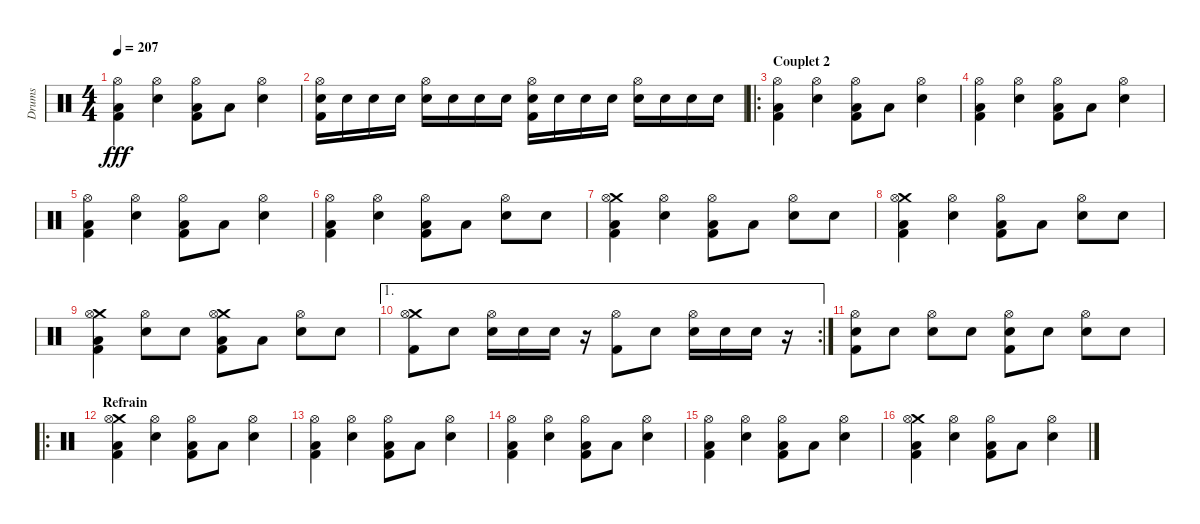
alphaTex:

\track ("Drums" "Drums") {instrument percussion}
\staff {score}
\articulation defaults
\ts (4 4)
\tempo 207
\clef neutral
\ks c
("Hi-Hat (open)" "Low Floor Tom (hit)" "Kick (hit) 2").4{dy fff} ("Hi-Hat (open)" "Snare (hit) 2").4 ("Hi-Hat (open)" "Low Floor Tom (hit)" "Kick (hit) 2").8 "Low Floor Tom (hit)".8 ("Hi-Hat (open)" "Snare (hit) 2").4 |
("Hi-Hat (open)" "Snare (hit) 2" "Kick (hit) 2").16 "Snare (hit) 2".16 "Snare (hit) 2".16 "Snare (hit) 2".16 ("Hi-Hat (open)" "Snare (hit) 2").16 "Snare (hit) 2".16 "Snare (hit) 2".16 "Snare (hit) 2".16 ("Hi-Hat (open)" "Snare (hit) 2" "Kick (hit) 2").16 "Snare (hit) 2".16 "Snare (hit) 2".16 "Snare (hit) 2".16 ("Hi-Hat (open)" "Snare (hit) 2").16 "Snare (hit) 2".16 "Snare (hit) 2".16 "Snare (hit) 2".16 |
\ro
\section ("" "Couplet 2")
("Hi-Hat (open)" "Low Floor Tom (hit)" "Kick (hit) 2").4 ("Hi-Hat (open)" "Snare (hit) 2").4 ("Hi-Hat (open)" "Low Floor Tom (hit)" "Kick (hit) 2").8 "Low Floor Tom (hit)".8 ("Hi-Hat (open)" "Snare (hit) 2").4 |
("Hi-Hat (open)" "Low Floor Tom (hit)" "Kick (hit) 2").4 ("Hi-Hat (open)" "Snare (hit) 2").4 ("Hi-Hat (open)" "Low Floor Tom (hit)" "Kick (hit) 2").8 "Low Floor Tom (hit)".8 ("Hi-Hat (open)" "Snare (hit) 2").4 |
("Hi-Hat (open)" "Low Floor Tom (hit)" "Kick (hit) 2").4 ("Hi-Hat (open)" "Snare (hit) 2").4 ("Hi-Hat (open)" "Low Floor Tom (hit)" "Kick (hit) 2").8 "Low Floor Tom (hit)".8 ("Hi-Hat (open)" "Snare (hit) 2").4 |
("Hi-Hat (open)" "Low Floor Tom (hit)" "Kick (hit) 2").4 ("Hi-Hat (open)" "Snare (hit) 2").4 ("Hi-Hat (open)" "Low Floor Tom (hit)" "Kick (hit) 2").8 "Low Floor Tom (hit)".8 ("Hi-Hat (open)" "Snare (hit) 2").8 "Snare (hit) 2".8 |
("Crash medium (hit)" "Hi-Hat (open)" "Low Floor Tom (hit)" "Kick (hit) 2").4 ("Hi-Hat (open)" "Snare (hit) 2").4 ("Hi-Hat (open)" "Low Floor Tom (hit)" "Kick (hit) 2").8 "Low Floor Tom (hit)".8 ("Hi-Hat (open)" "Snare (hit) 2").8 "Snare (hit) 2".8 |
("Crash medium (hit)" "Hi-Hat (open)" "Low Floor Tom (hit)" "Kick (hit) 2").4 ("Hi-Hat (open)" "Snare (hit) 2").4 ("Hi-Hat (open)" "Low Floor Tom (hit)" "Kick (hit) 2").8 "Low Floor Tom (hit)".8 ("Hi-Hat (open)" "Snare (hit) 2").8 "Snare (hit) 2".8 |
("Crash medium (hit)" "Hi-Hat (open)" "Low Floor Tom (hit)" "Kick (hit) 2").4 ("Hi-Hat (open)" "Snare (hit) 2").8 "Snare (hit) 2".8 ("Crash medium (hit)" "Hi-Hat (open)" "Low Floor Tom (hit)" "Kick (hit) 2").8 "Low Floor Tom (hit)".8 ("Hi-Hat (open)" "Snare (hit) 2").8 "Snare (hit) 2".8 |
\ae 1
\rc 2
("Crash medium (hit)" "Hi-Hat (open)" "Kick (hit) 2").8 "Snare (hit) 2".8 ("Hi-Hat (open)" "Snare (hit) 2").16 "Snare (hit) 2".16 "Snare (hit) 2".16 r.16 ("Hi-Hat (open)" "Kick (hit) 2").8 "Snare (hit) 2".8 ("Hi-Hat (open)" "Snare (hit) 2").16 "Snare (hit) 2".16 "Snare (hit) 2".16 r.16 |
("Hi-Hat (open)" "Snare (hit) 2" "Kick (hit) 2").8 "Snare (hit) 2".8 ("Hi-Hat (open)" "Snare (hit) 2").8 "Snare (hit) 2".8 ("Hi-Hat (open)" "Snare (hit) 2" "Kick (hit) 2").8 "Snare (hit) 2".8 ("Hi-Hat (open)" "Snare (hit) 2").8 "Snare (hit) 2".8 |
\ro
\section ("" "Refrain")
("Crash medium (hit)" "Hi-Hat (open)" "Low Floor Tom (hit)" "Kick (hit) 2").4 ("Hi-Hat (open)" "Snare (hit) 2").4 ("Hi-Hat (open)" "Low Floor Tom (hit)" "Kick (hit) 2").8 "Low Floor Tom (hit)".8 ("Hi-Hat (open)" "Snare (hit) 2").4 |
("Hi-Hat (open)" "Low Floor Tom (hit)" "Kick (hit) 2").4 ("Hi-Hat (open)" "Snare (hit) 2").4 ("Hi-Hat (open)" "Low Floor Tom (hit)" "Kick (hit) 2").8 "Low Floor Tom (hit)".8 ("Hi-Hat (open)" "Snare (hit) 2").4 |
("Hi-Hat (open)" "Low Floor Tom (hit)" "Kick (hit) 2").4 ("Hi-Hat (open)" "Snare (hit) 2").4 ("Hi-Hat (open)" "Low Floor Tom (hit)" "Kick (hit) 2").8 "Low Floor Tom (hit)".8 ("Hi-Hat (open)" "Snare (hit) 2").4 |
("Hi-Hat (open)" "Low Floor Tom (hit)" "Kick (hit) 2").4 ("Hi-Hat (open)" "Snare (hit) 2").4 ("Hi-Hat (open)" "Low Floor Tom (hit)" "Kick (hit) 2").8 "Low Floor Tom (hit)".8 ("Hi-Hat (open)" "Snare (hit) 2").4 |
("Crash medium (hit)" "Hi-Hat (open)" "Low Floor Tom (hit)" "Kick (hit) 2").4 ("Hi-Hat (open)" "Snare (hit) 2").4 ("Hi-Hat (open)" "Low Floor Tom (hit)" "Kick (hit) 2").8 "Low Floor Tom (hit)".8 ("Hi-Hat (open)" "Snare (hit) 2").4
